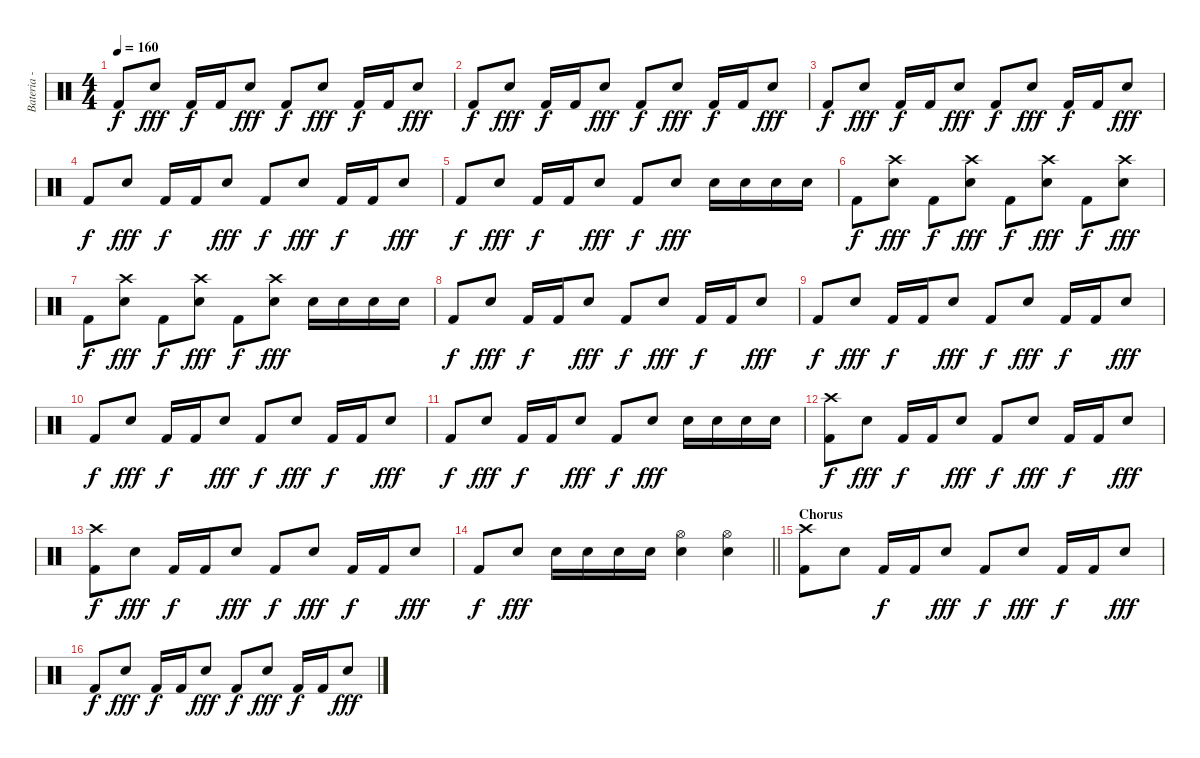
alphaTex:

\track ("Bateria - Larzon" "Bateria - ") {instrument percussion}
\staff {score}
\articulation defaults
\ts (4 4)
\tempo 160
\clef neutral
\ks c "Kick (hit) 2".8{dy f} "Snare (hit) 2".8{dy fff} "Kick (hit) 2".16{dy f} "Kick (hit) 2".16 "Snare (hit) 2".8{dy fff} "Kick (hit) 2".8{dy f} "Snare (hit) 2".8{dy fff} "Kick (hit) 2".16{dy f} "Kick (hit) 2".16 "Snare (hit) 2".8{dy fff}
|
"Kick (hit) 2".8{dy f} "Snare (hit) 2".8{dy fff} "Kick (hit) 2".16{dy f} "Kick (hit) 2".16 "Snare (hit) 2".8{dy fff} "Kick (hit) 2".8{dy f} "Snare (hit) 2".8{dy fff} "Kick (hit) 2".16{dy f} "Kick (hit) 2".16 "Snare (hit) 2".8{dy fff} |
"Kick (hit) 2".8{dy f} "Snare (hit) 2".8{dy fff} "Kick (hit) 2".16{dy f} "Kick (hit) 2".16 "Snare (hit) 2".8{dy fff} "Kick (hit) 2".8{dy f} "Snare (hit) 2".8{dy fff} "Kick (hit) 2".16{dy f} "Kick (hit) 2".16 "Snare (hit) 2".8{dy fff} |
"Kick (hit) 2".8{dy f} "Snare (hit) 2".8{dy fff} "Kick (hit) 2".16{dy f} "Kick (hit) 2".16 "Snare (hit) 2".8{dy fff} "Kick (hit) 2".8{dy f} "Snare (hit) 2".8{dy fff} "Kick (hit) 2".16{dy f} "Kick (hit) 2".16 "Snare (hit) 2".8{dy fff} |
"Kick (hit) 2".8{dy f} "Snare (hit) 2".8{dy fff} "Kick (hit) 2".16{dy f} "Kick (hit) 2".16 "Snare (hit) 2".8{dy fff} "Kick (hit) 2".8{dy f} "Snare (hit) 2".8{dy fff} "Snare (hit) 2".16 "Snare (hit) 2".16 "Snare (hit) 2".16 "Snare (hit) 2".16 |
"Kick (hit) 2".8{dy f} ("Snare (hit) 2" "Crash high (hit)").8{dy fff} "Kick (hit) 2".8{dy f} ("Snare (hit) 2" "Crash high (hit)").8{dy fff} "Kick (hit) 2".8{dy f} ("Snare (hit) 2" "Crash high (hit)").8{dy fff} "Kick (hit) 2".8{dy f} ("Snare (hit) 2" "Crash high (hit)").8{dy fff} |
"Kick (hit) 2".8{dy f} ("Snare (hit) 2" "Crash high (hit)").8{dy fff} "Kick (hit) 2".8{dy f} ("Snare (hit) 2" "Crash high (hit)").8{dy fff} "Kick (hit) 2".8{dy f} ("Snare (hit) 2" "Crash high (hit)").8{dy fff} "Snare (hit) 2".16 "Snare (hit) 2".16 "Snare (hit) 2".16 "Snare (hit) 2".16 |
"Kick (hit) 2".8{dy f} "Snare (hit) 2".8{dy fff} "Kick (hit) 2".16{dy f} "Kick (hit) 2".16 "Snare (hit) 2".8{dy fff} "Kick (hit) 2".8{dy f} "Snare (hit) 2".8{dy fff} "Kick (hit) 2".16{dy f} "Kick (hit) 2".16 "Snare (hit) 2".8{dy fff} |
"Kick (hit) 2".8{dy f} "Snare (hit) 2".8{dy fff} "Kick (hit) 2".16{dy f} "Kick (hit) 2".16 "Snare (hit) 2".8{dy fff} "Kick (hit) 2".8{dy f} "Snare (hit) 2".8{dy fff} "Kick (hit) 2".16{dy f} "Kick (hit) 2".16 "Snare (hit) 2".8{dy fff} |
"Kick (hit) 2".8{dy f} "Snare (hit) 2".8{dy fff} "Kick (hit) 2".16{dy f} "Kick (hit) 2".16 "Snare (hit) 2".8{dy fff} "Kick (hit) 2".8{dy f} "Snare (hit) 2".8{dy fff} "Kick (hit) 2".16{dy f} "Kick (hit) 2".16 "Snare (hit) 2".8{dy fff} |
"Kick (hit) 2".8{dy f} "Snare (hit) 2".8{dy fff} "Kick (hit) 2".16{dy f} "Kick (hit) 2".16 "Snare (hit) 2".8{dy fff} "Kick (hit) 2".8{dy f} "Snare (hit) 2".8{dy fff} "Snare (hit) 2".16 "Snare (hit) 2".16 "Snare (hit) 2".16 "Snare (hit) 2".16 |
("Kick (hit) 2" "Crash high (hit)").8{dy f} "Snare (hit) 2".8{dy fff} "Kick (hit) 2".16{dy f} "Kick (hit) 2".16 "Snare (hit) 2".8{dy fff} "Kick (hit) 2".8{dy f} "Snare (hit) 2".8{dy fff} "Kick (hit) 2".16{dy f} "Kick (hit) 2".16 "Snare (hit) 2".8{dy fff} |
("Kick (hit) 2" "Crash high (hit)").8{dy f} "Snare (hit) 2".8{dy fff} "Kick (hit) 2".16{dy f} "Kick (hit) 2".16 "Snare (hit) 2".8{dy fff} "Kick (hit) 2".8{dy f} "Snare (hit) 2".8{dy fff} "Kick (hit) 2".16{dy f} "Kick (hit) 2".16 "Snare (hit) 2".8{dy fff} |
\barLineRight lightlight "Kick (hit) 2".8{dy f} "Snare (hit) 2".8{dy fff} "Snare (hit) 2".16 "Snare (hit) 2".16 "Snare (hit) 2".16 "Snare (hit) 2".16
("Hi-Hat (open)" "Electric Snare (hit)").4 ("Hi-Hat (open)" "Electric Snare (hit)").4 |
\section ("" "Chorus")
("Kick (hit) 2" "Crash high (hit)").8 "Snare (hit) 2".8 "Kick (hit) 2".16{dy f} "Kick (hit) 2".16 "Snare (hit) 2".8{dy fff} "Kick (hit) 2".8{dy f} "Snare (hit) 2".8{dy fff} "Kick (hit) 2".16{dy f} "Kick (hit) 2".16 "Snare (hit) 2".8{dy fff} |
"Kick (hit) 2".8{dy f} "Snare (hit) 2".8{dy fff} "Kick (hit) 2".16{dy f} "Kick (hit) 2".16 "Snare (hit) 2".8{dy fff} "Kick (hit) 2".8{dy f} "Snare (hit) 2".8{dy fff} "Kick (hit) 2".16{dy f} "Kick (hit) 2".16 "Snare (hit) 2".8{dy fff}
